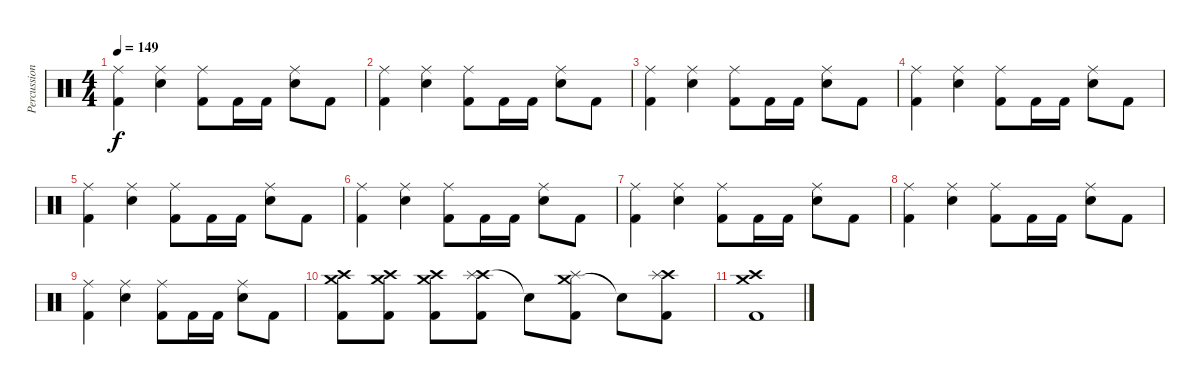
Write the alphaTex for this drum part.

\track ("Percussion" "Percussion") {instrument percussion}
\staff {score}
\articulation defaults
\ts (4 4)
\tempo 149
\clef neutral
\ks c
("Ride (middle)" "Kick (hit) 2").4{dy f} ("Ride (middle)" "Snare (hit) 2").4 ("Ride (middle)" "Kick (hit) 2").8 "Kick (hit) 2".16 "Kick (hit) 2".16 ("Ride (middle)" "Snare (hit) 2").8 "Kick (hit) 2".8 |
("Ride (middle)" "Kick (hit) 2").4 ("Ride (middle)" "Snare (hit) 2").4 ("Ride (middle)" "Kick (hit) 2").8 "Kick (hit) 2".16 "Kick (hit) 2".16 ("Ride (middle)" "Snare (hit) 2").8 "Kick (hit) 2".8 |
("Ride (middle)" "Kick (hit) 2").4 ("Ride (middle)" "Snare (hit) 2").4 ("Ride (middle)" "Kick (hit) 2").8 "Kick (hit) 2".16 "Kick (hit) 2".16 ("Ride (middle)" "Snare (hit) 2").8 "Kick (hit) 2".8 |
("Ride (middle)" "Kick (hit) 2").4 ("Ride (middle)" "Snare (hit) 2").4 ("Ride (middle)" "Kick (hit) 2").8 "Kick (hit) 2".16 "Kick (hit) 2".16 ("Ride (middle)" "Snare (hit) 2").8 "Kick (hit) 2".8 |
("Ride (middle)" "Kick (hit) 2").4 ("Ride (middle)" "Snare (hit) 2").4 ("Ride (middle)" "Kick (hit) 2").8 "Kick (hit) 2".16 "Kick (hit) 2".16 ("Ride (middle)" "Snare (hit) 2").8 "Kick (hit) 2".8 |
("Ride (middle)" "Kick (hit) 2").4 ("Ride (middle)" "Snare (hit) 2").4 ("Ride (middle)" "Kick (hit) 2").8 "Kick (hit) 2".16 "Kick (hit) 2".16 ("Ride (middle)" "Snare (hit) 2").8 "Kick (hit) 2".8 |
("Ride (middle)" "Kick (hit) 2").4 ("Ride (middle)" "Snare (hit) 2").4 ("Ride (middle)" "Kick (hit) 2").8 "Kick (hit) 2".16 "Kick (hit) 2".16 ("Ride (middle)" "Snare (hit) 2").8 "Kick (hit) 2".8 |
("Ride (middle)" "Kick (hit) 2").4 ("Ride (middle)" "Snare (hit) 2").4 ("Ride (middle)" "Kick (hit) 2").8 "Kick (hit) 2".16 "Kick (hit) 2".16 ("Ride (middle)" "Snare (hit) 2").8 "Kick (hit) 2".8 |
("Ride (middle)" "Kick (hit) 2").4 ("Ride (middle)" "Snare (hit) 2").4 ("Ride (middle)" "Kick (hit) 2").8 "Kick (hit) 2".16 "Kick (hit) 2".16 ("Ride (middle)" "Snare (hit) 2").8 "Kick (hit) 2".8 |
("Crash medium (hit)" "Crash high (hit)" "Kick (hit) 2").8 ("Crash medium (hit)" "Crash high (hit)" "Kick (hit) 2").8 ("Crash medium (hit)" "Crash high (hit)" "Kick (hit) 2").8 ("Crash high (hit)" "Splash (hit)" "Kick (hit) 2").8 "Snare (hit)"{t}.8 ("Crash medium (hit)" "Splash (hit)" "Kick (hit) 2").8 "Snare (hit)"{t}.8 ("Crash high (hit)" "Splash (hit)" "Kick (hit) 2").8 |
("Crash medium (hit)" "Crash high (hit)" "Kick (hit) 2").1
